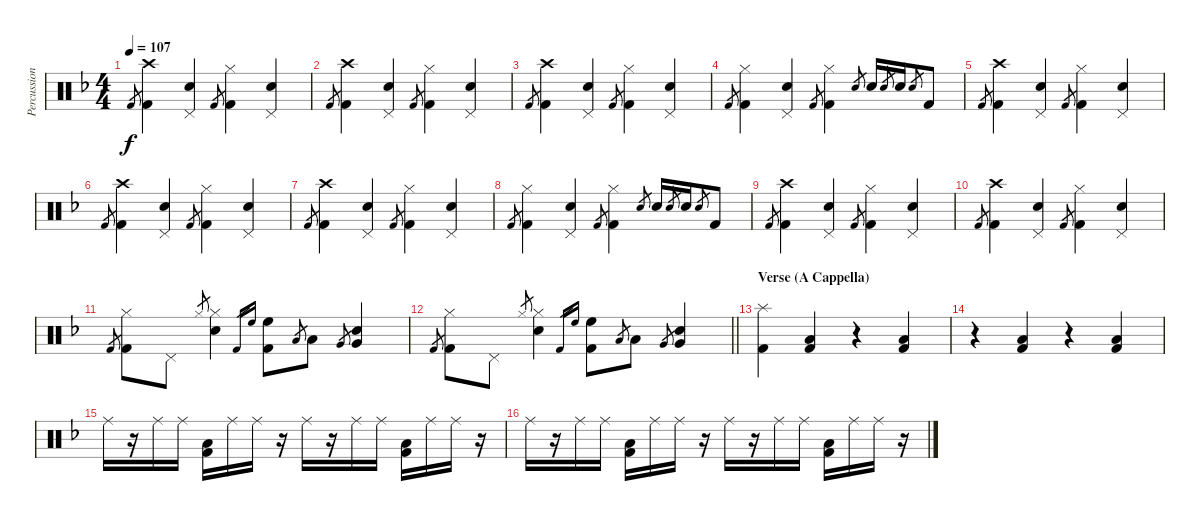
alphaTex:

\track ("Percussion" "Percussion") {instrument percussion}
\staff {score}
\articulation defaults
\ts (4 4)
\tempo 107
\clef neutral
\ks f "Kick (hit) 2".8{gr dy f}
("Kick (hit) 2" "Crash high (hit)").4 ("Snare (hit) 2" "Pedal Hi-Hat (hit)").4 "Kick (hit) 2".8{gr} ("Kick (hit) 2" "Hi-Hat (closed)").4 ("Snare (hit) 2" "Pedal Hi-Hat (hit)").4 |
"Kick (hit) 2".8{gr} ("Kick (hit) 2" "Crash high (hit)").4 ("Snare (hit) 2" "Pedal Hi-Hat (hit)").4 "Kick (hit) 2".8{gr} ("Kick (hit) 2" "Hi-Hat (closed)").4 ("Snare (hit) 2" "Pedal Hi-Hat (hit)").4 |
"Kick (hit) 2".8{gr} ("Kick (hit) 2" "Crash high (hit)").4 ("Snare (hit) 2" "Pedal Hi-Hat (hit)").4 "Kick (hit) 2".8{gr} ("Kick (hit) 2" "Hi-Hat (closed)").4 ("Snare (hit) 2" "Pedal Hi-Hat (hit)").4 |
"Kick (hit) 2".8{gr} ("Kick (hit) 2" "Hi-Hat (closed)").4 ("Snare (hit) 2" "Pedal Hi-Hat (hit)").4 "Kick (hit) 2".8{gr} ("Kick (hit) 2" "Hi-Hat (closed)").4 "Snare (hit) 2".8{gr} "Snare (hit) 2".16 "Snare (hit) 2".8{gr} "Snare (hit) 2".16 "Snare (hit) 2".8{gr} "Kick (hit) 2".8 |
"Kick (hit) 2".8{gr} ("Kick (hit) 2" "Crash high (hit)").4 ("Snare (hit) 2" "Pedal Hi-Hat (hit)").4 "Kick (hit) 2".8{gr} ("Kick (hit) 2" "Hi-Hat (closed)").4 ("Snare (hit) 2" "Pedal Hi-Hat (hit)").4 |
"Kick (hit) 2".8{gr} ("Kick (hit) 2" "Crash high (hit)").4 ("Snare (hit) 2" "Pedal Hi-Hat (hit)").4 "Kick (hit) 2".8{gr} ("Kick (hit) 2" "Hi-Hat (closed)").4 ("Snare (hit) 2" "Pedal Hi-Hat (hit)").4 |
"Kick (hit) 2".8{gr} ("Kick (hit) 2" "Crash high (hit)").4 ("Snare (hit) 2" "Pedal Hi-Hat (hit)").4 "Kick (hit) 2".8{gr} ("Kick (hit) 2" "Hi-Hat (closed)").4 ("Snare (hit) 2" "Pedal Hi-Hat (hit)").4 |
"Kick (hit) 2".8{gr} ("Kick (hit) 2" "Hi-Hat (closed)").4 ("Snare (hit) 2" "Pedal Hi-Hat (hit)").4 "Kick (hit) 2".8{gr} ("Kick (hit) 2" "Hi-Hat (closed)").4 "Snare (hit) 2".8{gr} "Snare (hit) 2".16 "Snare (hit) 2".8{gr} "Snare (hit) 2".16 "Snare (hit) 2".8{gr} "Kick (hit) 2".8 |
"Kick (hit) 2".8{gr} ("Kick (hit) 2" "Crash high (hit)").4 ("Snare (hit) 2" "Pedal Hi-Hat (hit)").4 "Kick (hit) 2".8{gr} ("Kick (hit) 2" "Hi-Hat (closed)").4 ("Snare (hit) 2" "Pedal Hi-Hat (hit)").4 |
"Kick (hit) 2".8{gr} ("Kick (hit) 2" "Crash high (hit)").4 ("Snare (hit) 2" "Pedal Hi-Hat (hit)").4 "Kick (hit) 2".8{gr} ("Kick (hit) 2" "Hi-Hat (closed)").4 ("Snare (hit) 2" "Pedal Hi-Hat (hit)").4 |
"Kick (hit) 2".8{gr} ("Kick (hit) 2" "Hi-Hat (closed)").8 "Pedal Hi-Hat (hit)".8 "Hi-Hat (closed)".8{gr} ("Snare (hit) 2" "Hi-Hat (closed)").4 "Kick (hit) 2".16{gr} "High Floor Tom (hit)".16{gr} ("Kick (hit) 2" "High Floor Tom (hit)").8 "Low Tom (hit)".8{gr} "Low Tom (hit)".8 "Very Low Tom (hit)".8{gr} ("Snare (hit) 2" "Very Low Tom (hit)").4 |
\barLineRight lightlight "Kick (hit) 2".8{gr}
("Kick (hit) 2" "Hi-Hat (closed)").8 "Pedal Hi-Hat (hit)".8 "Hi-Hat (closed)".8{gr} ("Snare (hit) 2" "Hi-Hat (closed)").4 "Kick (hit) 2".16{gr} "High Floor Tom (hit)".16{gr} ("Kick (hit) 2" "High Floor Tom (hit)").8 "Low Tom (hit)".8{gr} "Low Tom (hit)".8 "Very Low Tom (hit)".8{gr} ("Snare (hit) 2" "Very Low Tom (hit)").4 |
\section ("" "Verse (A Cappella)")
("Splash (hit)" "Kick (hit) 2").4 ("Low Floor Tom (hit)" "Kick (hit) 2").4 r.4 ("Low Floor Tom (hit)" "Kick (hit) 2").4 |
r.4 ("Low Floor Tom (hit)" "Kick (hit) 2").4 r.4 ("Low Floor Tom (hit)" "Kick (hit) 2").4 |
"Ride (middle)".16 r.16 "Ride (middle)".16 "Ride (middle)".16 ("Low Floor Tom (hit)" "Kick (hit) 2").16 "Ride (middle)".16 "Ride (middle)".16 r.16 "Ride (middle)".16 r.16 "Ride (middle)".16 "Ride (middle)".16 ("Low Floor Tom (hit)" "Kick (hit) 2").16 "Ride (middle)".16 "Ride (middle)".16 r.16 |
"Ride (middle)".16 r.16 "Ride (middle)".16 "Ride (middle)".16 ("Low Floor Tom (hit)" "Kick (hit) 2").16 "Ride (middle)".16 "Ride (middle)".16 r.16 "Ride (middle)".16 r.16 "Ride (middle)".16 "Ride (middle)".16 ("Low Floor Tom (hit)" "Kick (hit) 2").16 "Ride (middle)".16 "Ride (middle)".16 r.16
